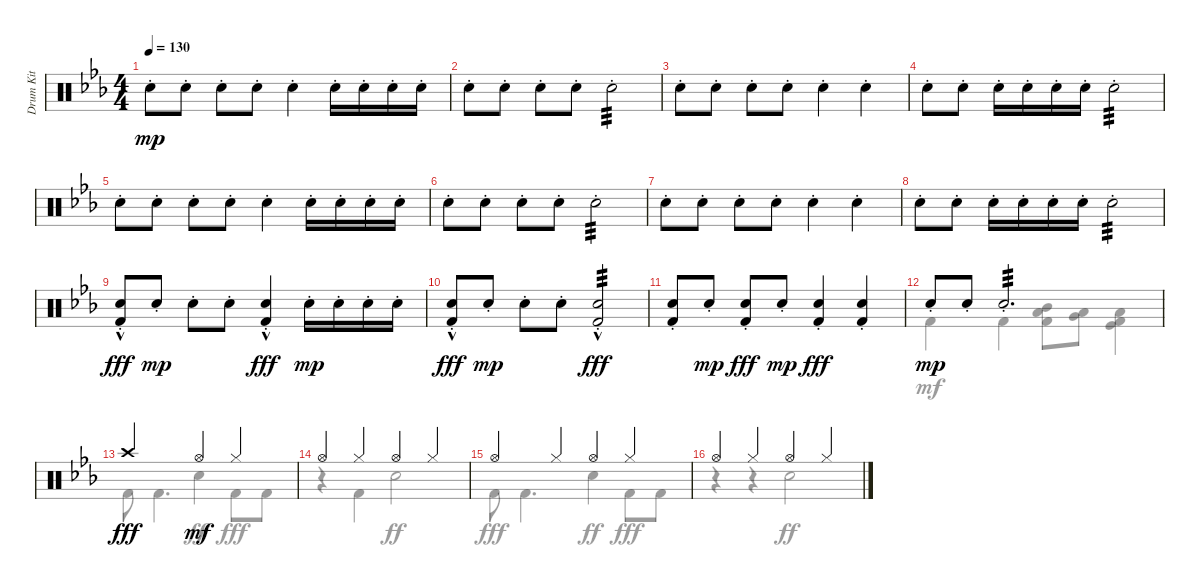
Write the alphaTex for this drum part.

\track ("Drum Kit" "Drum Kit") {instrument percussion}
\staff {score}
\articulation defaults
\voice
\ts (4 4)
\tempo 130
\clef neutral
\ks cminor "Electric Snare (hit)"{st}.8{dy mp} "Electric Snare (hit)"{st}.8 "Electric Snare (hit)"{st}.8 "Electric Snare (hit)"{st}.8 "Electric Snare (hit)"{st}.4 "Electric Snare (hit)"{st}.16 "Electric Snare (hit)"{st}.16 "Electric Snare (hit)"{st}.16 "Electric Snare (hit)"{st}.16
|
"Electric Snare (hit)"{st}.8 "Electric Snare (hit)"{st}.8 "Electric Snare (hit)"{st}.8 "Electric Snare (hit)"{st}.8 "Electric Snare (hit)"{st}.2{tp 3} |
"Electric Snare (hit)"{st}.8 "Electric Snare (hit)"{st}.8 "Electric Snare (hit)"{st}.8 "Electric Snare (hit)"{st}.8 "Electric Snare (hit)"{st}.4 "Electric Snare (hit)"{st}.4 |
"Electric Snare (hit)"{st}.8 "Electric Snare (hit)"{st}.8 "Electric Snare (hit)"{st}.16 "Electric Snare (hit)"{st}.16 "Electric Snare (hit)"{st}.16 "Electric Snare (hit)"{st}.16 "Electric Snare (hit)"{st}.2{tp 3} |
"Electric Snare (hit)"{st}.8 "Electric Snare (hit)"{st}.8 "Electric Snare (hit)"{st}.8 "Electric Snare (hit)"{st}.8 "Electric Snare (hit)"{st}.4 "Electric Snare (hit)"{st}.16 "Electric Snare (hit)"{st}.16 "Electric Snare (hit)"{st}.16 "Electric Snare (hit)"{st}.16 |
"Electric Snare (hit)"{st}.8 "Electric Snare (hit)"{st}.8 "Electric Snare (hit)"{st}.8 "Electric Snare (hit)"{st}.8 "Electric Snare (hit)"{st}.2{tp 3} |
"Electric Snare (hit)"{st}.8 "Electric Snare (hit)"{st}.8 "Electric Snare (hit)"{st}.8 "Electric Snare (hit)"{st}.8 "Electric Snare (hit)"{st}.4 "Electric Snare (hit)"{st}.4 |
"Electric Snare (hit)"{st}.8 "Electric Snare (hit)"{st}.8 "Electric Snare (hit)"{st}.16 "Electric Snare (hit)"{st}.16 "Electric Snare (hit)"{st}.16 "Electric Snare (hit)"{st}.16 "Electric Snare (hit)"{st}.2{tp 3} |
("Electric Snare (hit)"{st} "Kick (hit) 2"{hac}).8{dy fff} "Electric Snare (hit)"{st}.8{dy mp} "Electric Snare (hit)"{st}.8 "Electric Snare (hit)"{st}.8 ("Electric Snare (hit)"{st} "Kick (hit) 2"{hac}).4{dy fff} "Electric Snare (hit)"{st}.16{dy mp} "Electric Snare (hit)"{st}.16 "Electric Snare (hit)"{st}.16 "Electric Snare (hit)"{st}.16 |
("Electric Snare (hit)"{st} "Kick (hit) 2"{hac}).8{dy fff} "Electric Snare (hit)"{st}.8{dy mp} "Electric Snare (hit)"{st}.8 "Electric Snare (hit)"{st}.8 ("Electric Snare (hit)"{st} "Kick (hit) 2"{hac}).2{tp 3 dy fff} |
("Electric Snare (hit)"{st} "Kick (hit) 2").8 "Electric Snare (hit)"{st}.8{dy mp} ("Electric Snare (hit)"{st} "Kick (hit) 2").8{dy fff} "Electric Snare (hit)"{st}.8{dy mp} ("Electric Snare (hit)"{st} "Kick (hit) 2").4{dy fff} ("Electric Snare (hit)"{st} "Kick (hit) 2").4 |
"Electric Snare (hit)"{st}.8{dy mp} "Electric Snare (hit)"{st}.8 "Electric Snare (hit)"{st}.2{d tp 3} |
"Crash high (hit)".2{dy fff} "Hi-Hat (open)".4{dy mf} "Hi-Hat (closed)".4 |
"Hi-Hat (open)".4 "Hi-Hat (closed)".4 "Hi-Hat (open)".4 "Hi-Hat (closed)".4 |
"Hi-Hat (open)".4 "Hi-Hat (closed)".4 "Hi-Hat (open)".4 "Hi-Hat (closed)".4 |
"Hi-Hat (open)".4 "Hi-Hat (closed)".4 "Hi-Hat (open)".4 "Hi-Hat (closed)".4
\voice
\clef neutral
\ottava regular
\simile none
\ks cminor
|
|
|
|
|
|
|
|
|
|
|
"Kick (hit) 2".4 "Kick (hit) 2".4 ("Mid Tom (hit)" "Low Tom (hit)" "Kick (hit) 2").8 ("Low Tom (hit)" "Very Low Tom (hit)").8 ("Low Tom (hit)" "Kick (hit)" "Kick (hit) 2").4 |
"Kick (hit) 2".8 "Kick (hit) 2".4{d} "Electric Snare (hit)".4{dy ff} "Kick (hit) 2".8{dy fff} "Kick (hit) 2".8 |
r.4 "Kick (hit) 2".4 "Electric Snare (hit)".2{dy ff} |
"Kick (hit) 2".8{dy fff} "Kick (hit) 2".4{d} "Electric Snare (hit)".4{dy ff} "Kick (hit) 2".8{dy fff} "Kick (hit) 2".8 |
r.4 r.4 "Electric Snare (hit)".2{dy ff}
